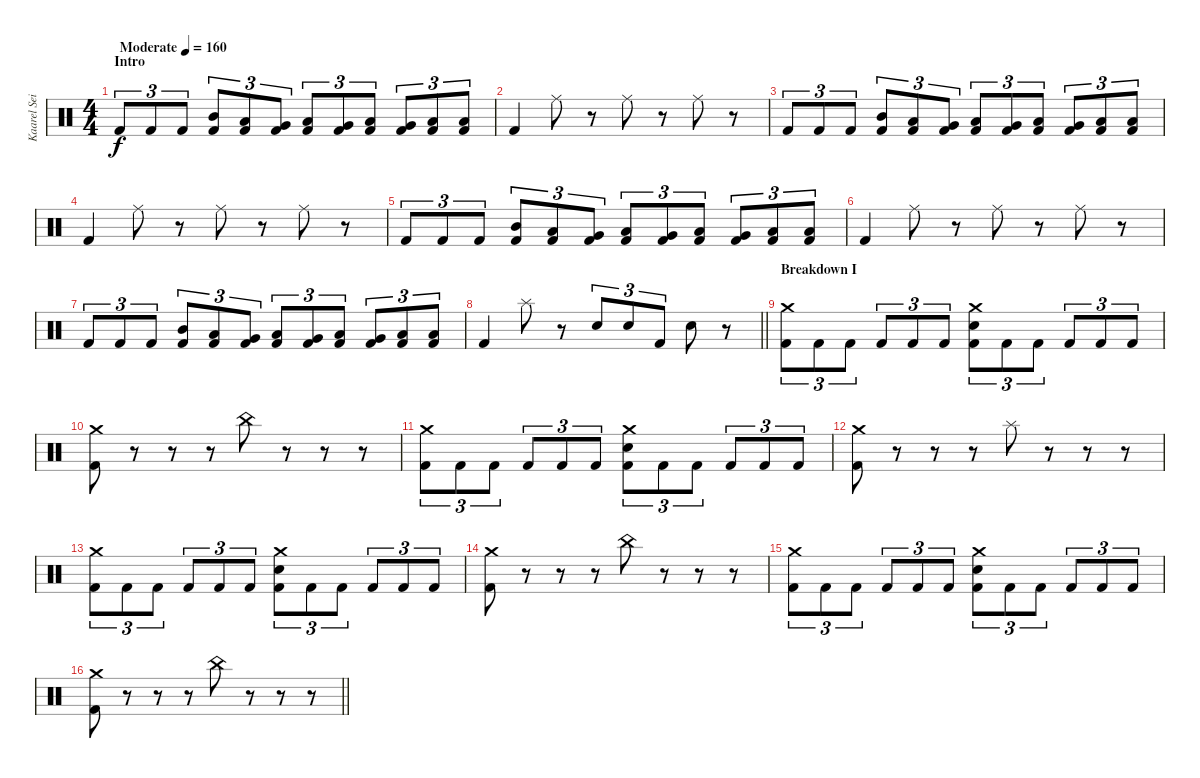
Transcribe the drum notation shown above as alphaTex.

\track ("Kaarel Sein" "Kaarel Sei") {instrument percussion}
\staff {score}
\articulation defaults
\ts (4 4)
\section ("" "Intro")
\tempo (160 "Moderate")
\clef neutral
\ks c "Kick (hit) 2".8{tu (3 2) dy f} "Kick (hit) 2".8{tu (3 2)} "Kick (hit) 2".8{tu (3 2)}
("Mid Tom (hit)" "Kick (hit) 2").8{tu (3 2)} ("Low Tom (hit)" "Kick (hit) 2").8{tu (3 2)} ("Very Low Tom (hit)" "Kick (hit) 2").8{tu (3 2)} ("Low Tom (hit)" "Kick (hit) 2").8{tu (3 2)} ("Very Low Tom (hit)" "Kick (hit) 2").8{tu (3 2)} ("Low Floor Tom (hit)" "Kick (hit) 2").8{tu (3 2)} ("Very Low Tom (hit)" "Kick (hit) 2").8{tu (3 2)} ("Low Floor Tom (hit)" "Kick (hit) 2").8{tu (3 2)} ("Low Floor Tom (hit)" "Kick (hit) 2").8{tu (3 2)} |
"Kick (hit) 2".4 "Ride (middle)".8 r.8 "Ride (middle)".8 r.8 "Ride (middle)".8 r.8 |
"Kick (hit) 2".8{tu (3 2)} "Kick (hit) 2".8{tu (3 2)} "Kick (hit) 2".8{tu (3 2)} ("Mid Tom (hit)" "Kick (hit) 2").8{tu (3 2)} ("Low Tom (hit)" "Kick (hit) 2").8{tu (3 2)} ("Very Low Tom (hit)" "Kick (hit) 2").8{tu (3 2)} ("Low Tom (hit)" "Kick (hit) 2").8{tu (3 2)} ("Very Low Tom (hit)" "Kick (hit) 2").8{tu (3 2)} ("Low Floor Tom (hit)" "Kick (hit) 2").8{tu (3 2)} ("Very Low Tom (hit)" "Kick (hit) 2").8{tu (3 2)} ("Low Floor Tom (hit)" "Kick (hit) 2").8{tu (3 2)} ("Low Floor Tom (hit)" "Kick (hit) 2").8{tu (3 2)} |
"Kick (hit) 2".4 "Ride (middle)".8 r.8 "Ride (middle)".8 r.8 "Ride (middle)".8 r.8 |
"Kick (hit) 2".8{tu (3 2)} "Kick (hit) 2".8{tu (3 2)} "Kick (hit) 2".8{tu (3 2)} ("Mid Tom (hit)" "Kick (hit) 2").8{tu (3 2)} ("Low Tom (hit)" "Kick (hit) 2").8{tu (3 2)} ("Very Low Tom (hit)" "Kick (hit) 2").8{tu (3 2)} ("Low Tom (hit)" "Kick (hit) 2").8{tu (3 2)} ("Very Low Tom (hit)" "Kick (hit) 2").8{tu (3 2)} ("Low Floor Tom (hit)" "Kick (hit) 2").8{tu (3 2)} ("Very Low Tom (hit)" "Kick (hit) 2").8{tu (3 2)} ("Low Floor Tom (hit)" "Kick (hit) 2").8{tu (3 2)} ("Low Floor Tom (hit)" "Kick (hit) 2").8{tu (3 2)} |
"Kick (hit) 2".4 "Ride (middle)".8 r.8 "Ride (middle)".8 r.8 "Ride (middle)".8 r.8 |
"Kick (hit) 2".8{tu (3 2)} "Kick (hit) 2".8{tu (3 2)} "Kick (hit) 2".8{tu (3 2)} ("Mid Tom (hit)" "Kick (hit) 2").8{tu (3 2)} ("Low Tom (hit)" "Kick (hit) 2").8{tu (3 2)} ("Very Low Tom (hit)" "Kick (hit) 2").8{tu (3 2)} ("Low Tom (hit)" "Kick (hit) 2").8{tu (3 2)} ("Very Low Tom (hit)" "Kick (hit) 2").8{tu (3 2)} ("Low Floor Tom (hit)" "Kick (hit) 2").8{tu (3 2)} ("Very Low Tom (hit)" "Kick (hit) 2").8{tu (3 2)} ("Low Floor Tom (hit)" "Kick (hit) 2").8{tu (3 2)} ("Low Floor Tom (hit)" "Kick (hit) 2").8{tu (3 2)} |
\barLineRight lightlight "Kick (hit) 2".4 "Splash (hit)".8
r.8 "Electric Snare (hit)".8{tu (3 2)} "Electric Snare (hit)".8{tu (3 2)} "Kick (hit) 2".8{tu (3 2)} "Electric Snare (hit)".8 r.8 |
\section ("" "Breakdown I")
("Crash medium (hit)" "Kick (hit) 2").8{tu (3 2)} "Kick (hit) 2".8{tu (3 2)} "Kick (hit) 2".8{tu (3 2)} "Kick (hit) 2".8{tu (3 2)} "Kick (hit) 2".8{tu (3 2)} "Kick (hit) 2".8{tu (3 2)} ("Crash medium (hit)" "Electric Snare (hit)" "Kick (hit) 2").8{tu (3 2)} "Kick (hit) 2".8{tu (3 2)} "Kick (hit) 2".8{tu (3 2)} "Kick (hit) 2".8{tu (3 2)} "Kick (hit) 2".8{tu (3 2)} "Kick (hit) 2".8{tu (3 2)} |
("Crash medium (hit)" "Kick (hit) 2").8 r.8 r.8 r.8 "China (hit)".8 r.8 r.8 r.8 |
("Crash medium (hit)" "Kick (hit) 2").8{tu (3 2)} "Kick (hit) 2".8{tu (3 2)} "Kick (hit) 2".8{tu (3 2)} "Kick (hit) 2".8{tu (3 2)} "Kick (hit) 2".8{tu (3 2)} "Kick (hit) 2".8{tu (3 2)} ("Crash medium (hit)" "Electric Snare (hit)" "Kick (hit) 2").8{tu (3 2)} "Kick (hit) 2".8{tu (3 2)} "Kick (hit) 2".8{tu (3 2)} "Kick (hit) 2".8{tu (3 2)} "Kick (hit) 2".8{tu (3 2)} "Kick (hit) 2".8{tu (3 2)} |
("Crash medium (hit)" "Kick (hit) 2").8 r.8 r.8 r.8 "Splash (hit)".8 r.8 r.8 r.8 |
("Crash medium (hit)" "Kick (hit) 2").8{tu (3 2)} "Kick (hit) 2".8{tu (3 2)} "Kick (hit) 2".8{tu (3 2)} "Kick (hit) 2".8{tu (3 2)} "Kick (hit) 2".8{tu (3 2)} "Kick (hit) 2".8{tu (3 2)} ("Crash medium (hit)" "Electric Snare (hit)" "Kick (hit) 2").8{tu (3 2)} "Kick (hit) 2".8{tu (3 2)} "Kick (hit) 2".8{tu (3 2)} "Kick (hit) 2".8{tu (3 2)} "Kick (hit) 2".8{tu (3 2)} "Kick (hit) 2".8{tu (3 2)} |
("Crash medium (hit)" "Kick (hit) 2").8 r.8 r.8 r.8 "China (hit)".8 r.8 r.8 r.8 |
("Crash medium (hit)" "Kick (hit) 2").8{tu (3 2)} "Kick (hit) 2".8{tu (3 2)} "Kick (hit) 2".8{tu (3 2)} "Kick (hit) 2".8{tu (3 2)} "Kick (hit) 2".8{tu (3 2)} "Kick (hit) 2".8{tu (3 2)} ("Crash medium (hit)" "Electric Snare (hit)" "Kick (hit) 2").8{tu (3 2)} "Kick (hit) 2".8{tu (3 2)} "Kick (hit) 2".8{tu (3 2)} "Kick (hit) 2".8{tu (3 2)} "Kick (hit) 2".8{tu (3 2)} "Kick (hit) 2".8{tu (3 2)} |
\barLineRight lightlight
("Crash medium (hit)" "Kick (hit) 2").8 r.8 r.8 r.8 "China (hit)".8 r.8 r.8 r.8
